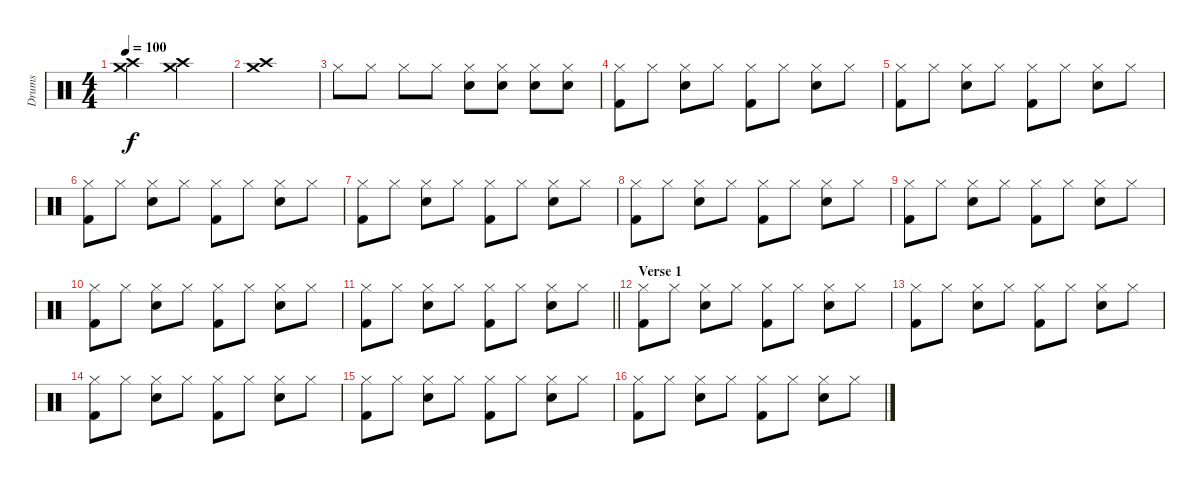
\track ("Drums" "Drums") {instrument percussion}
\staff {score}
\articulation defaults
\ts (4 4)
\tempo 100
\clef neutral
\ks c
("Crash high (hit)" "Crash medium (hit)").2{dy f} ("Crash high (hit)" "Crash medium (hit)").2 |
("Crash high (hit)" "Crash medium (hit)").1 |
"Hi-Hat (closed)".8 "Hi-Hat (closed)".8 "Hi-Hat (closed)".8 "Hi-Hat (closed)".8 ("Hi-Hat (closed)" "Snare (hit) 2").8 ("Hi-Hat (closed)" "Snare (hit) 2").8 ("Hi-Hat (closed)" "Snare (hit) 2").8 ("Hi-Hat (closed)" "Snare (hit) 2").8 |
("Hi-Hat (closed)" "Kick (hit) 2").8 "Hi-Hat (closed)".8 ("Hi-Hat (closed)" "Snare (hit) 2").8 "Hi-Hat (closed)".8 ("Hi-Hat (closed)" "Kick (hit) 2").8 "Hi-Hat (closed)".8 ("Hi-Hat (closed)" "Snare (hit) 2").8 "Hi-Hat (closed)".8 |
("Hi-Hat (closed)" "Kick (hit) 2").8 "Hi-Hat (closed)".8 ("Hi-Hat (closed)" "Snare (hit) 2").8 "Hi-Hat (closed)".8 ("Hi-Hat (closed)" "Kick (hit) 2").8 "Hi-Hat (closed)".8 ("Hi-Hat (closed)" "Snare (hit) 2").8 "Hi-Hat (closed)".8 |
("Hi-Hat (closed)" "Kick (hit) 2").8 "Hi-Hat (closed)".8 ("Hi-Hat (closed)" "Snare (hit) 2").8 "Hi-Hat (closed)".8 ("Hi-Hat (closed)" "Kick (hit) 2").8 "Hi-Hat (closed)".8 ("Hi-Hat (closed)" "Snare (hit) 2").8 "Hi-Hat (closed)".8 |
("Hi-Hat (closed)" "Kick (hit) 2").8 "Hi-Hat (closed)".8 ("Hi-Hat (closed)" "Snare (hit) 2").8 "Hi-Hat (closed)".8 ("Hi-Hat (closed)" "Kick (hit) 2").8 "Hi-Hat (closed)".8 ("Hi-Hat (closed)" "Snare (hit) 2").8 "Hi-Hat (closed)".8 |
("Hi-Hat (closed)" "Kick (hit) 2").8 "Hi-Hat (closed)".8 ("Hi-Hat (closed)" "Snare (hit) 2").8 "Hi-Hat (closed)".8 ("Hi-Hat (closed)" "Kick (hit) 2").8 "Hi-Hat (closed)".8 ("Hi-Hat (closed)" "Snare (hit) 2").8 "Hi-Hat (closed)".8 |
("Hi-Hat (closed)" "Kick (hit) 2").8 "Hi-Hat (closed)".8 ("Hi-Hat (closed)" "Snare (hit) 2").8 "Hi-Hat (closed)".8 ("Hi-Hat (closed)" "Kick (hit) 2").8 "Hi-Hat (closed)".8 ("Hi-Hat (closed)" "Snare (hit) 2").8 "Hi-Hat (closed)".8 |
("Hi-Hat (closed)" "Kick (hit) 2").8 "Hi-Hat (closed)".8 ("Hi-Hat (closed)" "Snare (hit) 2").8 "Hi-Hat (closed)".8 ("Hi-Hat (closed)" "Kick (hit) 2").8 "Hi-Hat (closed)".8 ("Hi-Hat (closed)" "Snare (hit) 2").8 "Hi-Hat (closed)".8 |
\barLineRight lightlight
("Hi-Hat (closed)" "Kick (hit) 2").8 "Hi-Hat (closed)".8 ("Hi-Hat (closed)" "Snare (hit) 2").8 "Hi-Hat (closed)".8 ("Hi-Hat (closed)" "Kick (hit) 2").8 "Hi-Hat (closed)".8 ("Hi-Hat (closed)" "Snare (hit) 2").8 "Hi-Hat (closed)".8 |
\section ("" "Verse 1")
("Hi-Hat (closed)" "Kick (hit) 2").8 "Hi-Hat (closed)".8 ("Hi-Hat (closed)" "Snare (hit) 2").8 "Hi-Hat (closed)".8 ("Hi-Hat (closed)" "Kick (hit) 2").8 "Hi-Hat (closed)".8 ("Hi-Hat (closed)" "Snare (hit) 2").8 "Hi-Hat (closed)".8 |
("Hi-Hat (closed)" "Kick (hit) 2").8 "Hi-Hat (closed)".8 ("Hi-Hat (closed)" "Snare (hit) 2").8 "Hi-Hat (closed)".8 ("Hi-Hat (closed)" "Kick (hit) 2").8 "Hi-Hat (closed)".8 ("Hi-Hat (closed)" "Snare (hit) 2").8 "Hi-Hat (closed)".8 |
("Hi-Hat (closed)" "Kick (hit) 2").8 "Hi-Hat (closed)".8 ("Hi-Hat (closed)" "Snare (hit) 2").8 "Hi-Hat (closed)".8 ("Hi-Hat (closed)" "Kick (hit) 2").8 "Hi-Hat (closed)".8 ("Hi-Hat (closed)" "Snare (hit) 2").8 "Hi-Hat (closed)".8 |
("Hi-Hat (closed)" "Kick (hit) 2").8 "Hi-Hat (closed)".8 ("Hi-Hat (closed)" "Snare (hit) 2").8 "Hi-Hat (closed)".8 ("Hi-Hat (closed)" "Kick (hit) 2").8 "Hi-Hat (closed)".8 ("Hi-Hat (closed)" "Snare (hit) 2").8 "Hi-Hat (closed)".8 |
("Hi-Hat (closed)" "Kick (hit) 2").8 "Hi-Hat (closed)".8 ("Hi-Hat (closed)" "Snare (hit) 2").8 "Hi-Hat (closed)".8 ("Hi-Hat (closed)" "Kick (hit) 2").8 "Hi-Hat (closed)".8 ("Hi-Hat (closed)" "Snare (hit) 2").8 "Hi-Hat (closed)".8
